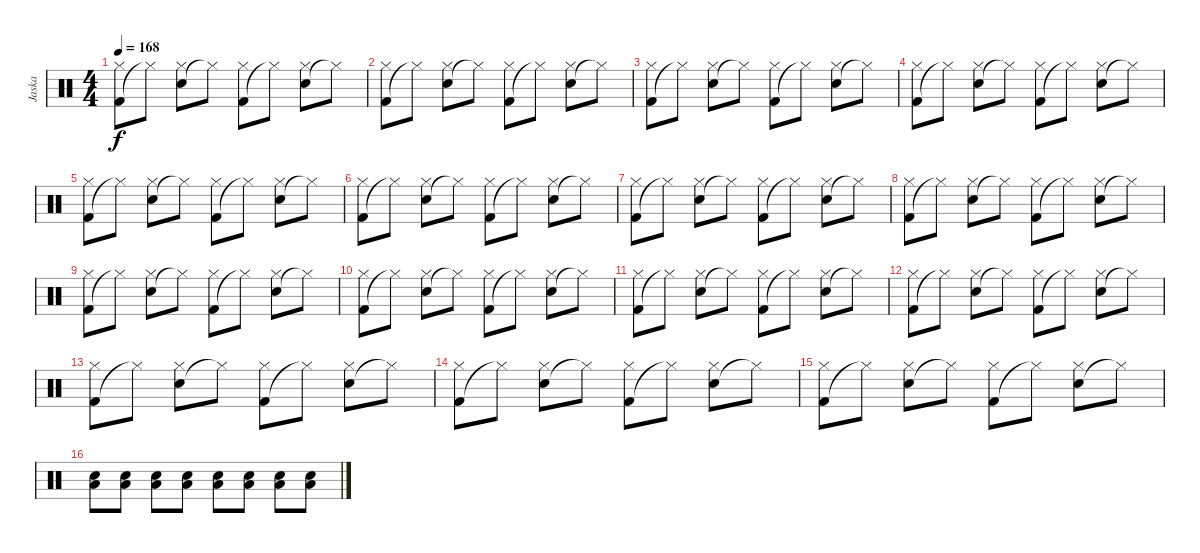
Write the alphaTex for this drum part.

\track ("Jaska" "Jaska") {instrument percussion}
\staff {score}
\articulation defaults
\ts (4 4)
\tempo 168
\clef neutral
\ks c
("Kick (hit) 2" "Hi-Hat (closed)").8{dy f} "Hi-Hat (closed)"{t}.8 ("Electric Snare (hit)" "Hi-Hat (closed)").8 "Hi-Hat (closed)"{t}.8 ("Kick (hit) 2" "Hi-Hat (closed)").8 "Hi-Hat (closed)"{t}.8 ("Electric Snare (hit)" "Hi-Hat (closed)").8 "Hi-Hat (closed)"{t}.8 |
("Kick (hit) 2" "Hi-Hat (closed)").8 "Hi-Hat (closed)"{t}.8 ("Electric Snare (hit)" "Hi-Hat (closed)").8 "Hi-Hat (closed)"{t}.8 ("Kick (hit) 2" "Hi-Hat (closed)").8 "Hi-Hat (closed)"{t}.8 ("Electric Snare (hit)" "Hi-Hat (closed)").8 "Hi-Hat (closed)"{t}.8 |
("Kick (hit) 2" "Hi-Hat (closed)").8 "Hi-Hat (closed)"{t}.8 ("Electric Snare (hit)" "Hi-Hat (closed)").8 "Hi-Hat (closed)"{t}.8 ("Kick (hit) 2" "Hi-Hat (closed)").8 "Hi-Hat (closed)"{t}.8 ("Electric Snare (hit)" "Hi-Hat (closed)").8 "Hi-Hat (closed)"{t}.8 |
("Kick (hit) 2" "Hi-Hat (closed)").8 "Hi-Hat (closed)"{t}.8 ("Electric Snare (hit)" "Hi-Hat (closed)").8 "Hi-Hat (closed)"{t}.8 ("Kick (hit) 2" "Hi-Hat (closed)").8 "Hi-Hat (closed)"{t}.8 ("Electric Snare (hit)" "Hi-Hat (closed)").8 "Hi-Hat (closed)"{t}.8 |
("Kick (hit) 2" "Hi-Hat (closed)").8 "Hi-Hat (closed)"{t}.8 ("Electric Snare (hit)" "Hi-Hat (closed)").8 "Hi-Hat (closed)"{t}.8 ("Kick (hit) 2" "Hi-Hat (closed)").8 "Hi-Hat (closed)"{t}.8 ("Electric Snare (hit)" "Hi-Hat (closed)").8 "Hi-Hat (closed)"{t}.8 |
("Kick (hit) 2" "Hi-Hat (closed)").8 "Hi-Hat (closed)"{t}.8 ("Electric Snare (hit)" "Hi-Hat (closed)").8 "Hi-Hat (closed)"{t}.8 ("Kick (hit) 2" "Hi-Hat (closed)").8 "Hi-Hat (closed)"{t}.8 ("Electric Snare (hit)" "Hi-Hat (closed)").8 "Hi-Hat (closed)"{t}.8 |
("Kick (hit) 2" "Hi-Hat (closed)").8 "Hi-Hat (closed)"{t}.8 ("Electric Snare (hit)" "Hi-Hat (closed)").8 "Hi-Hat (closed)"{t}.8 ("Kick (hit) 2" "Hi-Hat (closed)").8 "Hi-Hat (closed)"{t}.8 ("Electric Snare (hit)" "Hi-Hat (closed)").8 "Hi-Hat (closed)"{t}.8 |
("Kick (hit) 2" "Hi-Hat (closed)").8 "Hi-Hat (closed)"{t}.8 ("Electric Snare (hit)" "Hi-Hat (closed)").8 "Hi-Hat (closed)"{t}.8 ("Kick (hit) 2" "Hi-Hat (closed)").8 "Hi-Hat (closed)"{t}.8 ("Electric Snare (hit)" "Hi-Hat (closed)").8 "Hi-Hat (closed)"{t}.8 |
("Kick (hit) 2" "Hi-Hat (closed)").8 "Hi-Hat (closed)"{t}.8 ("Electric Snare (hit)" "Hi-Hat (closed)").8 "Hi-Hat (closed)"{t}.8 ("Kick (hit) 2" "Hi-Hat (closed)").8 "Hi-Hat (closed)"{t}.8 ("Electric Snare (hit)" "Hi-Hat (closed)").8 "Hi-Hat (closed)"{t}.8 |
("Kick (hit) 2" "Hi-Hat (closed)").8 "Hi-Hat (closed)"{t}.8 ("Electric Snare (hit)" "Hi-Hat (closed)").8 "Hi-Hat (closed)"{t}.8 ("Kick (hit) 2" "Hi-Hat (closed)").8 "Hi-Hat (closed)"{t}.8 ("Electric Snare (hit)" "Hi-Hat (closed)").8 "Hi-Hat (closed)"{t}.8 |
("Kick (hit) 2" "Hi-Hat (closed)").8 "Hi-Hat (closed)"{t}.8 ("Electric Snare (hit)" "Hi-Hat (closed)").8 "Hi-Hat (closed)"{t}.8 ("Kick (hit) 2" "Hi-Hat (closed)").8 "Hi-Hat (closed)"{t}.8 ("Electric Snare (hit)" "Hi-Hat (closed)").8 "Hi-Hat (closed)"{t}.8 |
("Kick (hit) 2" "Hi-Hat (closed)").8 "Hi-Hat (closed)"{t}.8 ("Electric Snare (hit)" "Hi-Hat (closed)").8 "Hi-Hat (closed)"{t}.8 ("Kick (hit) 2" "Hi-Hat (closed)").8 "Hi-Hat (closed)"{t}.8 ("Electric Snare (hit)" "Hi-Hat (closed)").8 "Hi-Hat (closed)"{t}.8 |
("Kick (hit) 2" "Hi-Hat (closed)").8 "Hi-Hat (closed)"{t}.8 ("Electric Snare (hit)" "Hi-Hat (closed)").8 "Hi-Hat (closed)"{t}.8 ("Kick (hit) 2" "Hi-Hat (closed)").8 "Hi-Hat (closed)"{t}.8 ("Electric Snare (hit)" "Hi-Hat (closed)").8 "Hi-Hat (closed)"{t}.8 |
("Kick (hit) 2" "Hi-Hat (closed)").8 "Hi-Hat (closed)"{t}.8 ("Electric Snare (hit)" "Hi-Hat (closed)").8 "Hi-Hat (closed)"{t}.8 ("Kick (hit) 2" "Hi-Hat (closed)").8 "Hi-Hat (closed)"{t}.8 ("Electric Snare (hit)" "Hi-Hat (closed)").8 "Hi-Hat (closed)"{t}.8 |
("Kick (hit) 2" "Hi-Hat (closed)").8 "Hi-Hat (closed)"{t}.8 ("Electric Snare (hit)" "Hi-Hat (closed)").8 "Hi-Hat (closed)"{t}.8 ("Kick (hit) 2" "Hi-Hat (closed)").8 "Hi-Hat (closed)"{t}.8 ("Electric Snare (hit)" "Hi-Hat (closed)").8 "Hi-Hat (closed)"{t}.8 |
("Electric Snare (hit)" "Low Tom (hit)").8 ("Electric Snare (hit)" "Low Tom (hit)").8 ("Electric Snare (hit)" "Low Tom (hit)").8 ("Electric Snare (hit)" "Low Tom (hit)").8 ("Electric Snare (hit)" "Low Tom (hit)").8 ("Electric Snare (hit)" "Low Tom (hit)").8 ("Electric Snare (hit)" "Low Tom (hit)").8 ("Electric Snare (hit)" "Low Tom (hit)").8
